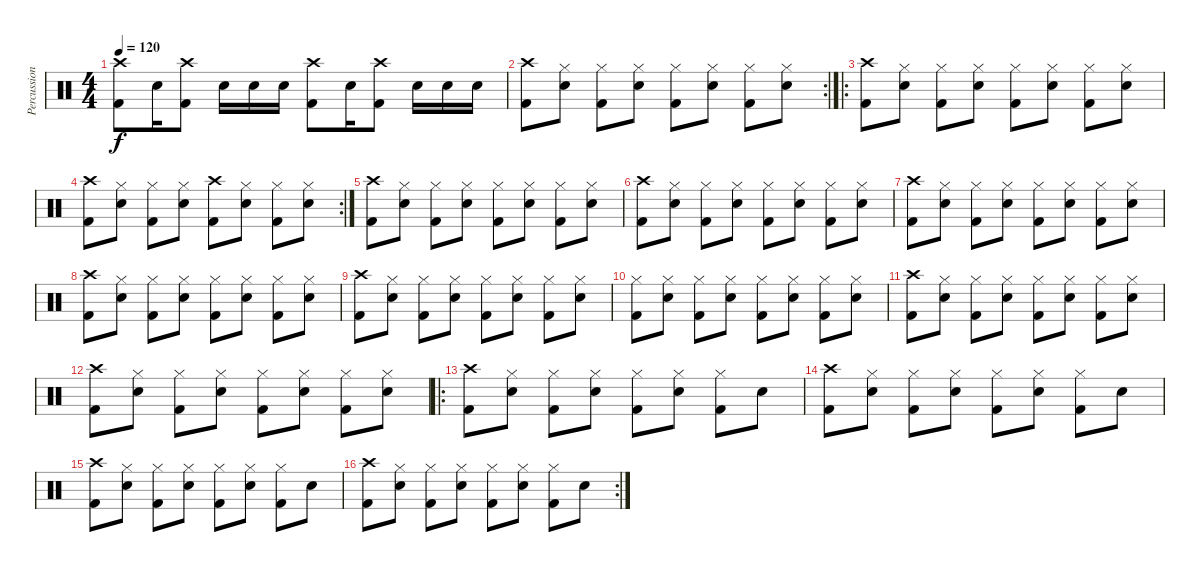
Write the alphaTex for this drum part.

\track ("Percussion" "Percussion") {instrument percussion}
\staff {score}
\articulation defaults
\ts (4 4)
\tempo 120
\clef neutral
\ks c
("Crash high (hit)" "Kick (hit) 2").8{dy f} "Snare (hit) 2".16 ("Crash high (hit)" "Kick (hit) 2").8 "Snare (hit) 2".16 "Snare (hit) 2".16 "Snare (hit) 2".16 ("Crash high (hit)" "Kick (hit) 2").8 "Snare (hit) 2".16 ("Crash high (hit)" "Kick (hit) 2").8 "Snare (hit) 2".16 "Snare (hit) 2".16 "Snare (hit) 2".16 |
\rc 2
("Crash high (hit)" "Kick (hit) 2").8 ("Hi-Hat (closed)" "Snare (hit) 2").8 ("Hi-Hat (closed)" "Kick (hit) 2").8 ("Hi-Hat (closed)" "Snare (hit) 2").8 ("Hi-Hat (closed)" "Kick (hit) 2").8 ("Hi-Hat (closed)" "Snare (hit) 2").8 ("Hi-Hat (closed)" "Kick (hit) 2").8 ("Hi-Hat (closed)" "Snare (hit) 2").8 |
\ro
("Crash high (hit)" "Kick (hit) 2").8 ("Hi-Hat (closed)" "Snare (hit) 2").8 ("Hi-Hat (closed)" "Kick (hit) 2").8 ("Hi-Hat (closed)" "Snare (hit) 2").8 ("Hi-Hat (closed)" "Kick (hit) 2").8 ("Hi-Hat (closed)" "Snare (hit) 2").8 ("Hi-Hat (closed)" "Kick (hit) 2").8 ("Hi-Hat (closed)" "Snare (hit) 2").8 |
\rc 2
("Crash high (hit)" "Kick (hit) 2").8 ("Hi-Hat (closed)" "Snare (hit) 2").8 ("Hi-Hat (closed)" "Kick (hit) 2").8 ("Hi-Hat (closed)" "Snare (hit) 2").8 ("Crash high (hit)" "Kick (hit) 2").8 ("Hi-Hat (closed)" "Snare (hit) 2").8 ("Hi-Hat (closed)" "Kick (hit) 2").8 ("Hi-Hat (closed)" "Snare (hit) 2").8 |
("Crash high (hit)" "Kick (hit) 2").8 ("Hi-Hat (closed)" "Snare (hit) 2").8 ("Hi-Hat (closed)" "Kick (hit) 2").8 ("Hi-Hat (closed)" "Snare (hit) 2").8 ("Hi-Hat (closed)" "Kick (hit) 2").8 ("Hi-Hat (closed)" "Snare (hit) 2").8 ("Hi-Hat (closed)" "Kick (hit) 2").8 ("Hi-Hat (closed)" "Snare (hit) 2").8 |
("Crash high (hit)" "Kick (hit) 2").8 ("Hi-Hat (closed)" "Snare (hit) 2").8 ("Hi-Hat (closed)" "Kick (hit) 2").8 ("Hi-Hat (closed)" "Snare (hit) 2").8 ("Hi-Hat (closed)" "Kick (hit) 2").8 ("Hi-Hat (closed)" "Snare (hit) 2").8 ("Hi-Hat (closed)" "Kick (hit) 2").8 ("Hi-Hat (closed)" "Snare (hit) 2").8 |
("Crash high (hit)" "Kick (hit) 2").8 ("Hi-Hat (closed)" "Snare (hit) 2").8 ("Hi-Hat (closed)" "Kick (hit) 2").8 ("Hi-Hat (closed)" "Snare (hit) 2").8 ("Hi-Hat (closed)" "Kick (hit) 2").8 ("Hi-Hat (closed)" "Snare (hit) 2").8 ("Hi-Hat (closed)" "Kick (hit) 2").8 ("Hi-Hat (closed)" "Snare (hit) 2").8 |
("Crash high (hit)" "Kick (hit) 2").8 ("Hi-Hat (closed)" "Snare (hit) 2").8 ("Hi-Hat (closed)" "Kick (hit) 2").8 ("Hi-Hat (closed)" "Snare (hit) 2").8 ("Hi-Hat (closed)" "Kick (hit) 2").8 ("Hi-Hat (closed)" "Snare (hit) 2").8 ("Hi-Hat (closed)" "Kick (hit) 2").8 ("Hi-Hat (closed)" "Snare (hit) 2").8 |
("Crash high (hit)" "Kick (hit) 2").8 ("Hi-Hat (closed)" "Snare (hit) 2").8 ("Hi-Hat (closed)" "Kick (hit) 2").8 ("Hi-Hat (closed)" "Snare (hit) 2").8 ("Hi-Hat (closed)" "Kick (hit) 2").8 ("Hi-Hat (closed)" "Snare (hit) 2").8 ("Hi-Hat (closed)" "Kick (hit) 2").8 ("Hi-Hat (closed)" "Snare (hit) 2").8 |
("Hi-Hat (closed)" "Kick (hit) 2").8 ("Hi-Hat (closed)" "Snare (hit) 2").8 ("Hi-Hat (closed)" "Kick (hit) 2").8 ("Hi-Hat (closed)" "Snare (hit) 2").8 ("Hi-Hat (closed)" "Kick (hit) 2").8 ("Hi-Hat (closed)" "Snare (hit) 2").8 ("Hi-Hat (closed)" "Kick (hit) 2").8 ("Hi-Hat (closed)" "Snare (hit) 2").8 |
("Crash high (hit)" "Kick (hit) 2").8 ("Hi-Hat (closed)" "Snare (hit) 2").8 ("Hi-Hat (closed)" "Kick (hit) 2").8 ("Hi-Hat (closed)" "Snare (hit) 2").8 ("Hi-Hat (closed)" "Kick (hit) 2").8 ("Hi-Hat (closed)" "Snare (hit) 2").8 ("Hi-Hat (closed)" "Kick (hit) 2").8 ("Hi-Hat (closed)" "Snare (hit) 2").8 |
("Crash high (hit)" "Kick (hit) 2").8 ("Hi-Hat (closed)" "Snare (hit) 2").8 ("Hi-Hat (closed)" "Kick (hit) 2").8 ("Hi-Hat (closed)" "Snare (hit) 2").8 ("Hi-Hat (closed)" "Kick (hit) 2").8 ("Hi-Hat (closed)" "Snare (hit) 2").8 ("Hi-Hat (closed)" "Kick (hit) 2").8 ("Hi-Hat (closed)" "Snare (hit) 2").8 |
\ro
("Crash high (hit)" "Kick (hit) 2").8 ("Hi-Hat (closed)" "Snare (hit) 2").8 ("Hi-Hat (closed)" "Kick (hit) 2").8 ("Hi-Hat (closed)" "Snare (hit) 2").8 ("Hi-Hat (closed)" "Kick (hit) 2").8 ("Hi-Hat (closed)" "Snare (hit) 2").8 ("Hi-Hat (closed)" "Kick (hit) 2").8 "Snare (hit) 2".8 |
("Crash high (hit)" "Kick (hit) 2").8 ("Hi-Hat (closed)" "Snare (hit) 2").8 ("Hi-Hat (closed)" "Kick (hit) 2").8 ("Hi-Hat (closed)" "Snare (hit) 2").8 ("Hi-Hat (closed)" "Kick (hit) 2").8 ("Hi-Hat (closed)" "Snare (hit) 2").8 ("Hi-Hat (closed)" "Kick (hit) 2").8 "Snare (hit) 2".8 |
("Crash high (hit)" "Kick (hit) 2").8 ("Hi-Hat (closed)" "Snare (hit) 2").8 ("Hi-Hat (closed)" "Kick (hit) 2").8 ("Hi-Hat (closed)" "Snare (hit) 2").8 ("Hi-Hat (closed)" "Kick (hit) 2").8 ("Hi-Hat (closed)" "Snare (hit) 2").8 ("Hi-Hat (closed)" "Kick (hit) 2").8 "Snare (hit) 2".8 |
\rc 2
("Crash high (hit)" "Kick (hit) 2").8 ("Hi-Hat (closed)" "Snare (hit) 2").8 ("Hi-Hat (closed)" "Kick (hit) 2").8 ("Hi-Hat (closed)" "Snare (hit) 2").8 ("Hi-Hat (closed)" "Kick (hit) 2").8 ("Hi-Hat (closed)" "Snare (hit) 2").8 ("Hi-Hat (closed)" "Kick (hit) 2").8 "Snare (hit) 2".8
